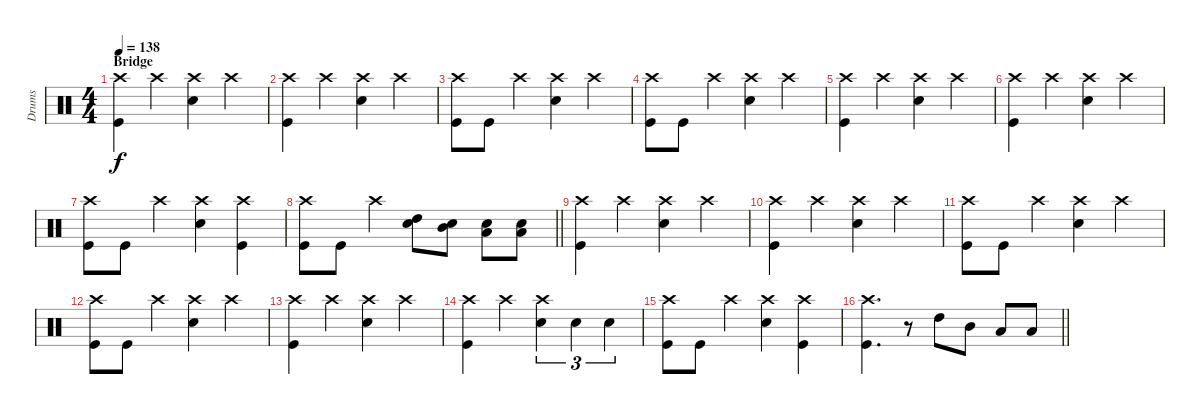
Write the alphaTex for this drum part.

\track ("Drums" "Drums") {instrument percussion}
\staff {score}
\articulation defaults
\ts (4 4)
\section ("" "Bridge")
\tempo 138
\clef neutral
\ks c
("Crash high (hit)" "Kick (hit)").4{dy f} "Crash high (hit)".4 ("Crash high (hit)" "Electric Snare (hit)").4 "Crash high (hit)".4 |
("Crash high (hit)" "Kick (hit)").4 "Crash high (hit)".4 ("Crash high (hit)" "Electric Snare (hit)").4 "Crash high (hit)".4 |
("Crash high (hit)" "Kick (hit)").8 "Kick (hit)".8 "Crash high (hit)".4 ("Crash high (hit)" "Electric Snare (hit)").4 "Crash high (hit)".4 |
("Crash high (hit)" "Kick (hit)").8 "Kick (hit)".8 "Crash high (hit)".4 ("Crash high (hit)" "Electric Snare (hit)").4 "Crash high (hit)".4 |
("Crash high (hit)" "Kick (hit)").4 "Crash high (hit)".4 ("Crash high (hit)" "Electric Snare (hit)").4 "Crash high (hit)".4 |
("Crash high (hit)" "Kick (hit)").4 "Crash high (hit)".4 ("Crash high (hit)" "Electric Snare (hit)").4 "Crash high (hit)".4 |
("Crash high (hit)" "Kick (hit)").8 "Kick (hit)".8 "Crash high (hit)".4 ("Crash high (hit)" "Electric Snare (hit)").4 ("Crash high (hit)" "Kick (hit)").4 |
\barLineRight lightlight
("Crash high (hit)" "Kick (hit)").8 "Kick (hit)".8 "Crash high (hit)".4 ("High Tom (hit)" "Electric Snare (hit)").8 ("Mid Tom (hit)" "Electric Snare (hit)").8 ("Low Tom (hit)" "Electric Snare (hit)").8 ("Low Floor Tom (hit)" "Electric Snare (hit)").8 |
("Crash high (hit)" "Kick (hit)").4 "Crash high (hit)".4 ("Crash high (hit)" "Electric Snare (hit)").4 "Crash high (hit)".4 |
("Crash high (hit)" "Kick (hit)").4 "Crash high (hit)".4 ("Crash high (hit)" "Electric Snare (hit)").4 "Crash high (hit)".4 |
("Crash high (hit)" "Kick (hit)").8 "Kick (hit)".8 "Crash high (hit)".4 ("Crash high (hit)" "Electric Snare (hit)").4 "Crash high (hit)".4 |
("Crash high (hit)" "Kick (hit)").8 "Kick (hit)".8 "Crash high (hit)".4 ("Crash high (hit)" "Electric Snare (hit)").4 "Crash high (hit)".4 |
("Crash high (hit)" "Kick (hit)").4 "Crash high (hit)".4 ("Crash high (hit)" "Electric Snare (hit)").4 "Crash high (hit)".4 |
("Crash high (hit)" "Kick (hit)").4 "Crash high (hit)".4 ("Crash high (hit)" "Electric Snare (hit)").4{tu (3 2)} "Electric Snare (hit)".4{tu (3 2)} "Electric Snare (hit)".4{tu (3 2)} |
("Crash high (hit)" "Kick (hit)").8 "Kick (hit)".8 "Crash high (hit)".4 ("Crash high (hit)" "Electric Snare (hit)").4 ("Crash high (hit)" "Kick (hit)").4 |
\barLineRight lightlight
("Crash high (hit)" "Kick (hit)").4{d} r.8 "High Tom (hit)".8 "Mid Tom (hit)".8 "Low Tom (hit)".8 "Low Floor Tom (hit)".8
